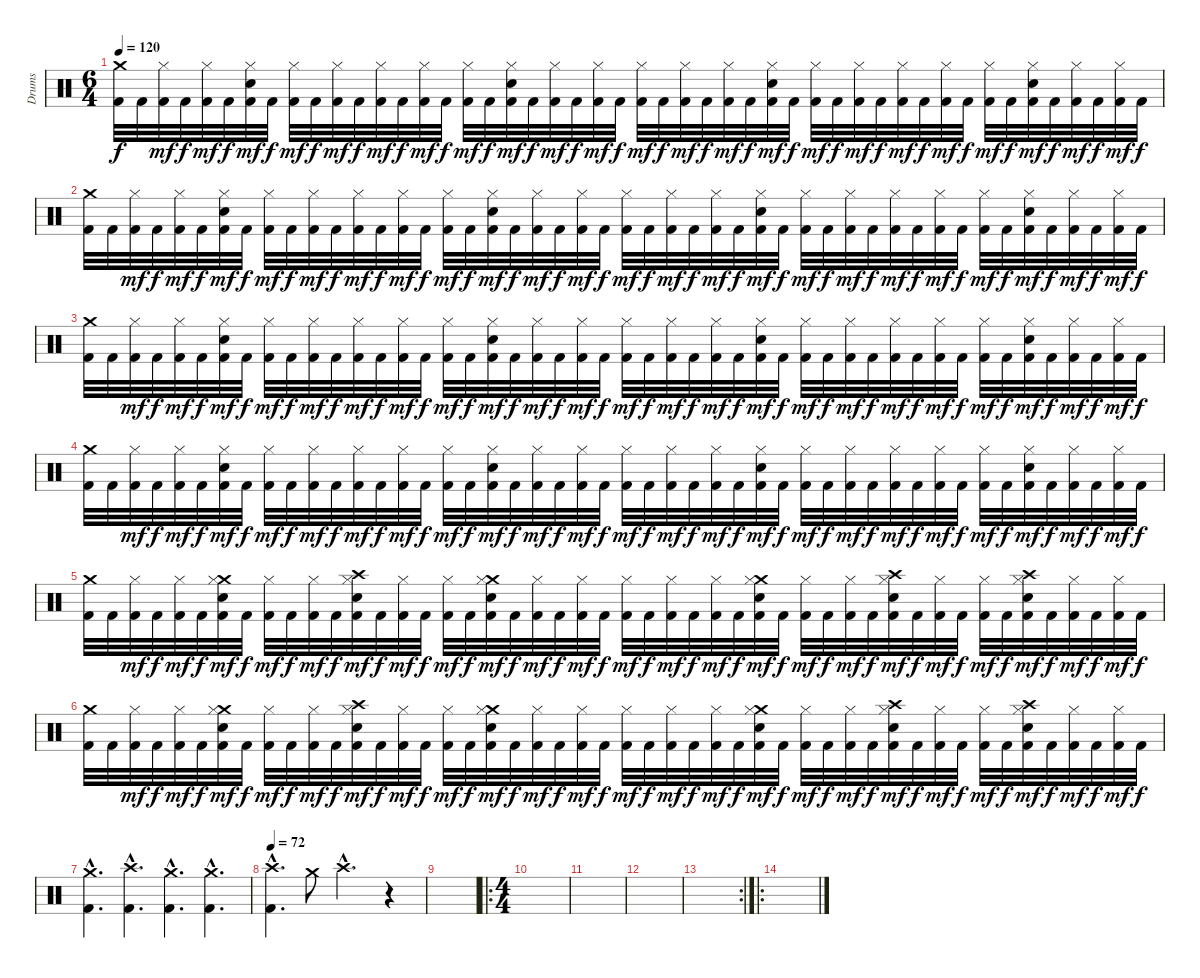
\track ("Drums" "Drums") {instrument percussion}
\staff {score}
\articulation defaults
\ts (6 4)
\tempo 120
\clef neutral
\ks c
("Crash medium (hit)" "Kick (hit) 2").32{dy f} "Kick (hit) 2".32 ("Hi-Hat (closed)" "Kick (hit) 2").32{dy mf} "Kick (hit) 2".32{dy f} ("Hi-Hat (closed)" "Kick (hit) 2").32{dy mf} "Kick (hit) 2".32{dy f} ("Hi-Hat (closed)" "Electric Snare (hit)" "Kick (hit) 2").32{dy mf} "Kick (hit) 2".32{dy f} ("Hi-Hat (closed)" "Kick (hit) 2").32{dy mf} "Kick (hit) 2".32{dy f} ("Hi-Hat (closed)" "Kick (hit) 2").32{dy mf} "Kick (hit) 2".32{dy f} ("Hi-Hat (closed)" "Kick (hit) 2").32{dy mf} "Kick (hit) 2".32{dy f} ("Hi-Hat (closed)" "Kick (hit) 2").32{dy mf} "Kick (hit) 2".32{dy f} ("Hi-Hat (closed)" "Kick (hit) 2").32{dy mf} "Kick (hit) 2".32{dy f} ("Hi-Hat (closed)" "Electric Snare (hit)" "Kick (hit) 2").32{dy mf} "Kick (hit) 2".32{dy f} ("Hi-Hat (closed)" "Kick (hit) 2").32{dy mf} "Kick (hit) 2".32{dy f} ("Hi-Hat (closed)" "Kick (hit) 2").32{dy mf} "Kick (hit) 2".32{dy f} ("Hi-Hat (closed)" "Kick (hit) 2").32{dy mf} "Kick (hit) 2".32{dy f} ("Hi-Hat (closed)" "Kick (hit) 2").32{dy mf} "Kick (hit) 2".32{dy f} ("Hi-Hat (closed)" "Kick (hit) 2").32{dy mf} "Kick (hit) 2".32{dy f} ("Hi-Hat (closed)" "Electric Snare (hit)" "Kick (hit) 2").32{dy mf} "Kick (hit) 2".32{dy f} ("Hi-Hat (closed)" "Kick (hit) 2").32{dy mf} "Kick (hit) 2".32{dy f} ("Hi-Hat (closed)" "Kick (hit) 2").32{dy mf} "Kick (hit) 2".32{dy f} ("Hi-Hat (closed)" "Kick (hit) 2").32{dy mf} "Kick (hit) 2".32{dy f} ("Hi-Hat (closed)" "Kick (hit) 2").32{dy mf} "Kick (hit) 2".32{dy f} ("Hi-Hat (closed)" "Kick (hit) 2").32{dy mf} "Kick (hit) 2".32{dy f} ("Hi-Hat (closed)" "Electric Snare (hit)" "Kick (hit) 2").32{dy mf} "Kick (hit) 2".32{dy f} ("Hi-Hat (closed)" "Kick (hit) 2").32{dy mf} "Kick (hit) 2".32{dy f} ("Hi-Hat (closed)" "Kick (hit) 2").32{dy mf} "Kick (hit) 2".32{dy f} |
("Crash medium (hit)" "Kick (hit) 2").32 "Kick (hit) 2".32 ("Hi-Hat (closed)" "Kick (hit) 2").32{dy mf} "Kick (hit) 2".32{dy f} ("Hi-Hat (closed)" "Kick (hit) 2").32{dy mf} "Kick (hit) 2".32{dy f} ("Hi-Hat (closed)" "Electric Snare (hit)" "Kick (hit) 2").32{dy mf} "Kick (hit) 2".32{dy f} ("Hi-Hat (closed)" "Kick (hit) 2").32{dy mf} "Kick (hit) 2".32{dy f} ("Hi-Hat (closed)" "Kick (hit) 2").32{dy mf} "Kick (hit) 2".32{dy f} ("Hi-Hat (closed)" "Kick (hit) 2").32{dy mf} "Kick (hit) 2".32{dy f} ("Hi-Hat (closed)" "Kick (hit) 2").32{dy mf} "Kick (hit) 2".32{dy f} ("Hi-Hat (closed)" "Kick (hit) 2").32{dy mf} "Kick (hit) 2".32{dy f} ("Hi-Hat (closed)" "Electric Snare (hit)" "Kick (hit) 2").32{dy mf} "Kick (hit) 2".32{dy f} ("Hi-Hat (closed)" "Kick (hit) 2").32{dy mf} "Kick (hit) 2".32{dy f} ("Hi-Hat (closed)" "Kick (hit) 2").32{dy mf} "Kick (hit) 2".32{dy f} ("Hi-Hat (closed)" "Kick (hit) 2").32{dy mf} "Kick (hit) 2".32{dy f} ("Hi-Hat (closed)" "Kick (hit) 2").32{dy mf} "Kick (hit) 2".32{dy f} ("Hi-Hat (closed)" "Kick (hit) 2").32{dy mf} "Kick (hit) 2".32{dy f} ("Hi-Hat (closed)" "Electric Snare (hit)" "Kick (hit) 2").32{dy mf} "Kick (hit) 2".32{dy f} ("Hi-Hat (closed)" "Kick (hit) 2").32{dy mf} "Kick (hit) 2".32{dy f} ("Hi-Hat (closed)" "Kick (hit) 2").32{dy mf} "Kick (hit) 2".32{dy f} ("Hi-Hat (closed)" "Kick (hit) 2").32{dy mf} "Kick (hit) 2".32{dy f} ("Hi-Hat (closed)" "Kick (hit) 2").32{dy mf} "Kick (hit) 2".32{dy f} ("Hi-Hat (closed)" "Kick (hit) 2").32{dy mf} "Kick (hit) 2".32{dy f} ("Hi-Hat (closed)" "Electric Snare (hit)" "Kick (hit) 2").32{dy mf} "Kick (hit) 2".32{dy f} ("Hi-Hat (closed)" "Kick (hit) 2").32{dy mf} "Kick (hit) 2".32{dy f} ("Hi-Hat (closed)" "Kick (hit) 2").32{dy mf} "Kick (hit) 2".32{dy f} |
("Crash medium (hit)" "Kick (hit) 2").32 "Kick (hit) 2".32 ("Hi-Hat (closed)" "Kick (hit) 2").32{dy mf} "Kick (hit) 2".32{dy f} ("Hi-Hat (closed)" "Kick (hit) 2").32{dy mf} "Kick (hit) 2".32{dy f} ("Hi-Hat (closed)" "Electric Snare (hit)" "Kick (hit) 2").32{dy mf} "Kick (hit) 2".32{dy f} ("Hi-Hat (closed)" "Kick (hit) 2").32{dy mf} "Kick (hit) 2".32{dy f} ("Hi-Hat (closed)" "Kick (hit) 2").32{dy mf} "Kick (hit) 2".32{dy f} ("Hi-Hat (closed)" "Kick (hit) 2").32{dy mf} "Kick (hit) 2".32{dy f} ("Hi-Hat (closed)" "Kick (hit) 2").32{dy mf} "Kick (hit) 2".32{dy f} ("Hi-Hat (closed)" "Kick (hit) 2").32{dy mf} "Kick (hit) 2".32{dy f} ("Hi-Hat (closed)" "Electric Snare (hit)" "Kick (hit) 2").32{dy mf} "Kick (hit) 2".32{dy f} ("Hi-Hat (closed)" "Kick (hit) 2").32{dy mf} "Kick (hit) 2".32{dy f} ("Hi-Hat (closed)" "Kick (hit) 2").32{dy mf} "Kick (hit) 2".32{dy f} ("Hi-Hat (closed)" "Kick (hit) 2").32{dy mf} "Kick (hit) 2".32{dy f} ("Hi-Hat (closed)" "Kick (hit) 2").32{dy mf} "Kick (hit) 2".32{dy f} ("Hi-Hat (closed)" "Kick (hit) 2").32{dy mf} "Kick (hit) 2".32{dy f} ("Hi-Hat (closed)" "Electric Snare (hit)" "Kick (hit) 2").32{dy mf} "Kick (hit) 2".32{dy f} ("Hi-Hat (closed)" "Kick (hit) 2").32{dy mf} "Kick (hit) 2".32{dy f} ("Hi-Hat (closed)" "Kick (hit) 2").32{dy mf} "Kick (hit) 2".32{dy f} ("Hi-Hat (closed)" "Kick (hit) 2").32{dy mf} "Kick (hit) 2".32{dy f} ("Hi-Hat (closed)" "Kick (hit) 2").32{dy mf} "Kick (hit) 2".32{dy f} ("Hi-Hat (closed)" "Kick (hit) 2").32{dy mf} "Kick (hit) 2".32{dy f} ("Hi-Hat (closed)" "Electric Snare (hit)" "Kick (hit) 2").32{dy mf} "Kick (hit) 2".32{dy f} ("Hi-Hat (closed)" "Kick (hit) 2").32{dy mf} "Kick (hit) 2".32{dy f} ("Hi-Hat (closed)" "Kick (hit) 2").32{dy mf} "Kick (hit) 2".32{dy f} |
("Crash medium (hit)" "Kick (hit) 2").32 "Kick (hit) 2".32 ("Hi-Hat (closed)" "Kick (hit) 2").32{dy mf} "Kick (hit) 2".32{dy f} ("Hi-Hat (closed)" "Kick (hit) 2").32{dy mf} "Kick (hit) 2".32{dy f} ("Hi-Hat (closed)" "Electric Snare (hit)" "Kick (hit) 2").32{dy mf} "Kick (hit) 2".32{dy f} ("Hi-Hat (closed)" "Kick (hit) 2").32{dy mf} "Kick (hit) 2".32{dy f} ("Hi-Hat (closed)" "Kick (hit) 2").32{dy mf} "Kick (hit) 2".32{dy f} ("Hi-Hat (closed)" "Kick (hit) 2").32{dy mf} "Kick (hit) 2".32{dy f} ("Hi-Hat (closed)" "Kick (hit) 2").32{dy mf} "Kick (hit) 2".32{dy f} ("Hi-Hat (closed)" "Kick (hit) 2").32{dy mf} "Kick (hit) 2".32{dy f} ("Hi-Hat (closed)" "Electric Snare (hit)" "Kick (hit) 2").32{dy mf} "Kick (hit) 2".32{dy f} ("Hi-Hat (closed)" "Kick (hit) 2").32{dy mf} "Kick (hit) 2".32{dy f} ("Hi-Hat (closed)" "Kick (hit) 2").32{dy mf} "Kick (hit) 2".32{dy f} ("Hi-Hat (closed)" "Kick (hit) 2").32{dy mf} "Kick (hit) 2".32{dy f} ("Hi-Hat (closed)" "Kick (hit) 2").32{dy mf} "Kick (hit) 2".32{dy f} ("Hi-Hat (closed)" "Kick (hit) 2").32{dy mf} "Kick (hit) 2".32{dy f} ("Hi-Hat (closed)" "Electric Snare (hit)" "Kick (hit) 2").32{dy mf} "Kick (hit) 2".32{dy f} ("Hi-Hat (closed)" "Kick (hit) 2").32{dy mf} "Kick (hit) 2".32{dy f} ("Hi-Hat (closed)" "Kick (hit) 2").32{dy mf} "Kick (hit) 2".32{dy f} ("Hi-Hat (closed)" "Kick (hit) 2").32{dy mf} "Kick (hit) 2".32{dy f} ("Hi-Hat (closed)" "Kick (hit) 2").32{dy mf} "Kick (hit) 2".32{dy f} ("Hi-Hat (closed)" "Kick (hit) 2").32{dy mf} "Kick (hit) 2".32{dy f} ("Hi-Hat (closed)" "Electric Snare (hit)" "Kick (hit) 2").32{dy mf} "Kick (hit) 2".32{dy f} ("Hi-Hat (closed)" "Kick (hit) 2").32{dy mf} "Kick (hit) 2".32{dy f} ("Hi-Hat (closed)" "Kick (hit) 2").32{dy mf} "Kick (hit) 2".32{dy f} |
("Crash medium (hit)" "Kick (hit) 2").32 "Kick (hit) 2".32 ("Hi-Hat (closed)" "Kick (hit) 2").32{dy mf} "Kick (hit) 2".32{dy f} ("Hi-Hat (closed)" "Kick (hit) 2").32{dy mf} "Kick (hit) 2".32{dy f} ("Crash medium (hit)" "Hi-Hat (closed)" "Electric Snare (hit)" "Kick (hit) 2").32{dy mf} "Kick (hit) 2".32{dy f} ("Hi-Hat (closed)" "Kick (hit) 2").32{dy mf} "Kick (hit) 2".32{dy f} ("Hi-Hat (closed)" "Kick (hit) 2").32{dy mf} "Kick (hit) 2".32{dy f} ("Crash high (hit)" "Hi-Hat (closed)" "Electric Snare (hit)" "Kick (hit) 2").32{dy mf} "Kick (hit) 2".32{dy f} ("Hi-Hat (closed)" "Kick (hit) 2").32{dy mf} "Kick (hit) 2".32{dy f} ("Hi-Hat (closed)" "Kick (hit) 2").32{dy mf} "Kick (hit) 2".32{dy f} ("Crash medium (hit)" "Hi-Hat (closed)" "Electric Snare (hit)" "Kick (hit) 2").32{dy mf} "Kick (hit) 2".32{dy f} ("Hi-Hat (closed)" "Kick (hit) 2").32{dy mf} "Kick (hit) 2".32{dy f} ("Hi-Hat (closed)" "Kick (hit) 2").32{dy mf} "Kick (hit) 2".32{dy f} ("Hi-Hat (closed)" "Kick (hit) 2").32{dy mf} "Kick (hit) 2".32{dy f} ("Hi-Hat (closed)" "Kick (hit) 2").32{dy mf} "Kick (hit) 2".32{dy f} ("Hi-Hat (closed)" "Kick (hit) 2").32{dy mf} "Kick (hit) 2".32{dy f} ("Crash medium (hit)" "Hi-Hat (closed)" "Electric Snare (hit)" "Kick (hit) 2").32{dy mf} "Kick (hit) 2".32{dy f} ("Hi-Hat (closed)" "Kick (hit) 2").32{dy mf} "Kick (hit) 2".32{dy f} ("Hi-Hat (closed)" "Kick (hit) 2").32{dy mf} "Kick (hit) 2".32{dy f} ("Crash high (hit)" "Hi-Hat (closed)" "Electric Snare (hit)" "Kick (hit) 2").32{dy mf} "Kick (hit) 2".32{dy f} ("Hi-Hat (closed)" "Kick (hit) 2").32{dy mf} "Kick (hit) 2".32{dy f} ("Hi-Hat (closed)" "Kick (hit) 2").32{dy mf} "Kick (hit) 2".32{dy f} ("Crash high (hit)" "Hi-Hat (closed)" "Electric Snare (hit)" "Kick (hit) 2").32{dy mf} "Kick (hit) 2".32{dy f} ("Hi-Hat (closed)" "Kick (hit) 2").32{dy mf} "Kick (hit) 2".32{dy f} ("Hi-Hat (closed)" "Kick (hit) 2").32{dy mf} "Kick (hit) 2".32{dy f} |
("Crash medium (hit)" "Kick (hit) 2").32 "Kick (hit) 2".32 ("Hi-Hat (closed)" "Kick (hit) 2").32{dy mf} "Kick (hit) 2".32{dy f} ("Hi-Hat (closed)" "Kick (hit) 2").32{dy mf} "Kick (hit) 2".32{dy f} ("Crash medium (hit)" "Hi-Hat (closed)" "Electric Snare (hit)" "Kick (hit) 2").32{dy mf} "Kick (hit) 2".32{dy f} ("Hi-Hat (closed)" "Kick (hit) 2").32{dy mf} "Kick (hit) 2".32{dy f} ("Hi-Hat (closed)" "Kick (hit) 2").32{dy mf} "Kick (hit) 2".32{dy f} ("Crash high (hit)" "Hi-Hat (closed)" "Electric Snare (hit)" "Kick (hit) 2").32{dy mf} "Kick (hit) 2".32{dy f} ("Hi-Hat (closed)" "Kick (hit) 2").32{dy mf} "Kick (hit) 2".32{dy f} ("Hi-Hat (closed)" "Kick (hit) 2").32{dy mf} "Kick (hit) 2".32{dy f} ("Crash medium (hit)" "Hi-Hat (closed)" "Electric Snare (hit)" "Kick (hit) 2").32{dy mf} "Kick (hit) 2".32{dy f} ("Hi-Hat (closed)" "Kick (hit) 2").32{dy mf} "Kick (hit) 2".32{dy f} ("Hi-Hat (closed)" "Kick (hit) 2").32{dy mf} "Kick (hit) 2".32{dy f} ("Hi-Hat (closed)" "Kick (hit) 2").32{dy mf} "Kick (hit) 2".32{dy f} ("Hi-Hat (closed)" "Kick (hit) 2").32{dy mf} "Kick (hit) 2".32{dy f} ("Hi-Hat (closed)" "Kick (hit) 2").32{dy mf} "Kick (hit) 2".32{dy f} ("Crash medium (hit)" "Hi-Hat (closed)" "Electric Snare (hit)" "Kick (hit) 2").32{dy mf} "Kick (hit) 2".32{dy f} ("Hi-Hat (closed)" "Kick (hit) 2").32{dy mf} "Kick (hit) 2".32{dy f} ("Hi-Hat (closed)" "Kick (hit) 2").32{dy mf} "Kick (hit) 2".32{dy f} ("Crash high (hit)" "Hi-Hat (closed)" "Electric Snare (hit)" "Kick (hit) 2").32{dy mf} "Kick (hit) 2".32{dy f} ("Hi-Hat (closed)" "Kick (hit) 2").32{dy mf} "Kick (hit) 2".32{dy f} ("Hi-Hat (closed)" "Kick (hit) 2").32{dy mf} "Kick (hit) 2".32{dy f} ("Crash high (hit)" "Hi-Hat (closed)" "Electric Snare (hit)" "Kick (hit) 2").32{dy mf} "Kick (hit) 2".32{dy f} ("Hi-Hat (closed)" "Kick (hit) 2").32{dy mf} "Kick (hit) 2".32{dy f} ("Hi-Hat (closed)" "Kick (hit) 2").32{dy mf} "Kick (hit) 2".32{dy f} |
("Crash medium (hit)"{hac} "Kick (hit) 2"{hac}).4{d} ("Crash high (hit)"{hac} "Kick (hit) 2"{hac}).4{d} ("Crash medium (hit)"{hac} "Kick (hit) 2"{hac}).4{d} ("Crash medium (hit)"{hac} "Kick (hit) 2"{hac}).4{d} |
\tempo 72
("Crash high (hit)"{hac} "Kick (hit) 2"{hac}).4{d} "Crash medium (hit)".8 "Crash high (hit)"{hac}.2{d} r.4 |
|
\ro
\ts (4 4)
|
|
|
\rc 2
|
\ro
